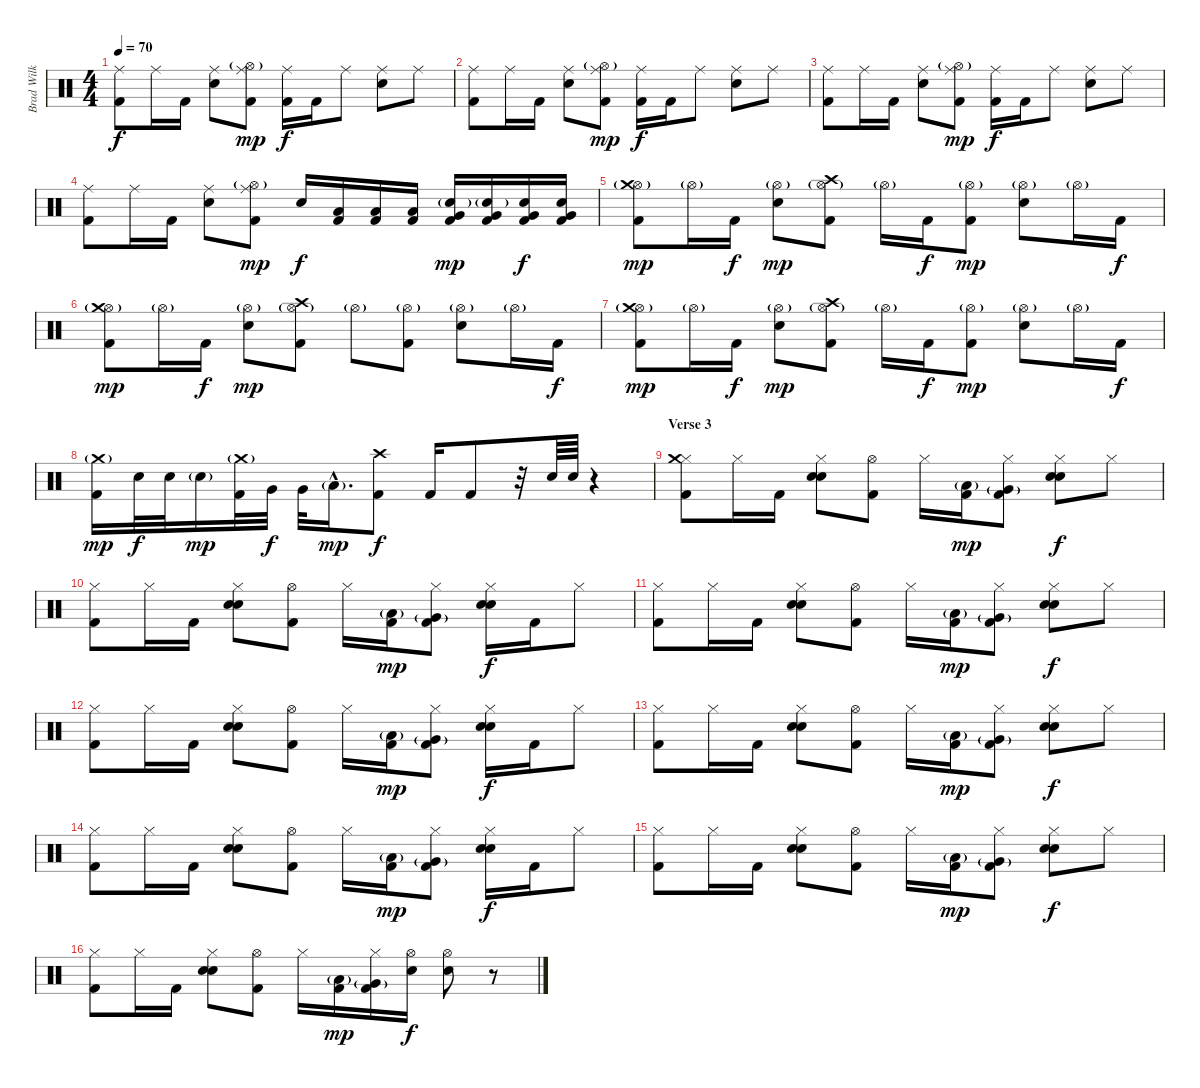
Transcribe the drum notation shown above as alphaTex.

\track ("Brad Wilk (percussion)" "Brad Wilk ") {instrument percussion}
\staff {score}
\articulation defaults
\ts (4 4)
\tempo 70
\clef neutral
\ks c
("Ride (middle)" "Kick (hit) 2").8{dy f} "Ride (middle)".16 "Kick (hit) 2".16 ("Ride (middle)" "Electric Snare (hit)").8 ("Ride (middle)" "Hi-Hat (open)"{g} "Kick (hit) 2").8{dy mp} ("Ride (middle)" "Kick (hit) 2").16{dy f} "Kick (hit) 2".16 "Ride (middle)".8 ("Ride (middle)" "Electric Snare (hit)").8 "Ride (middle)".8 |
("Ride (middle)" "Kick (hit) 2").8 "Ride (middle)".16 "Kick (hit) 2".16 ("Ride (middle)" "Electric Snare (hit)").8 ("Ride (middle)" "Hi-Hat (open)"{g} "Kick (hit) 2").8{dy mp} ("Ride (middle)" "Kick (hit) 2").16{dy f} "Kick (hit) 2".16 "Ride (middle)".8 ("Ride (middle)" "Electric Snare (hit)").8 "Ride (middle)".8 |
("Ride (middle)" "Kick (hit) 2").8 "Ride (middle)".16 "Kick (hit) 2".16 ("Ride (middle)" "Electric Snare (hit)").8 ("Ride (middle)" "Hi-Hat (open)"{g} "Kick (hit) 2").8{dy mp} ("Ride (middle)" "Kick (hit) 2").16{dy f} "Kick (hit) 2".16 "Ride (middle)".8 ("Ride (middle)" "Electric Snare (hit)").8 "Ride (middle)".8 |
("Ride (middle)" "Kick (hit) 2").8 "Ride (middle)".16 "Kick (hit) 2".16 ("Ride (middle)" "Electric Snare (hit)").8 ("Ride (middle)" "Hi-Hat (open)"{g} "Kick (hit) 2").8{dy mp} "Electric Snare (hit)".16{dy f} ("Low Floor Tom (hit)" "Kick (hit) 2").16 ("Low Floor Tom (hit)" "Kick (hit) 2").16 ("Low Floor Tom (hit)" "Kick (hit) 2").16 ("Electric Snare (hit)"{g} "Very Low Tom (hit)" "Kick (hit) 2").16{dy mp} ("Electric Snare (hit)"{g} "Very Low Tom (hit)" "Kick (hit) 2").16 ("Electric Snare (hit)" "Very Low Tom (hit)" "Kick (hit) 2").16{dy f} ("Electric Snare (hit)" "Very Low Tom (hit)" "Kick (hit) 2").16 |
("Hi-Hat (open)"{g} "Crash medium (hit)" "Kick (hit) 2").8{dy mp} "Hi-Hat (open)"{g}.16 "Kick (hit) 2".16{dy f} ("Hi-Hat (open)"{g} "Electric Snare (hit)").8{dy mp} ("Hi-Hat (open)"{g} "Crash high (hit)" "Kick (hit) 2").8 "Hi-Hat (open)"{g}.16 "Kick (hit) 2".16{dy f} ("Hi-Hat (open)"{g} "Kick (hit) 2").8{dy mp} ("Hi-Hat (open)"{g} "Electric Snare (hit)").8 "Hi-Hat (open)"{g}.16 "Kick (hit) 2".16{dy f} |
("Hi-Hat (open)"{g} "Crash medium (hit)" "Kick (hit) 2").8{dy mp} "Hi-Hat (open)"{g}.16 "Kick (hit) 2".16{dy f} ("Hi-Hat (open)"{g} "Electric Snare (hit)").8{dy mp} ("Hi-Hat (open)"{g} "Crash high (hit)" "Kick (hit) 2").8 "Hi-Hat (open)"{g}.8 ("Hi-Hat (open)"{g} "Kick (hit) 2").8 ("Hi-Hat (open)"{g} "Electric Snare (hit)").8 "Hi-Hat (open)"{g}.16 "Kick (hit) 2".16{dy f} |
("Hi-Hat (open)"{g} "Crash medium (hit)" "Kick (hit) 2").8{dy mp} "Hi-Hat (open)"{g}.16 "Kick (hit) 2".16{dy f} ("Hi-Hat (open)"{g} "Electric Snare (hit)").8{dy mp} ("Hi-Hat (open)"{g} "Crash high (hit)" "Kick (hit) 2").8 "Hi-Hat (open)"{g}.16 "Kick (hit) 2".16{dy f} ("Hi-Hat (open)"{g} "Kick (hit) 2").8{dy mp} ("Hi-Hat (open)"{g} "Electric Snare (hit)").8 "Hi-Hat (open)"{g}.16 "Kick (hit) 2".16{dy f} |
("Crash medium (hit)"{g} "Kick (hit) 2").16{dy mp} "Electric Snare (hit)".32{dy f} "Electric Snare (hit)".32 "Electric Snare (hit)"{g}.16{dy mp} ("Crash medium (hit)"{g} "Kick (hit) 2").32 "Very Low Tom (hit)".32{dy f} "Very Low Tom (hit)".32 "Low Floor Tom (hit)"{g hac}.16{d dy mp} ("Crash high (hit)" "Kick (hit) 2").8{dy f} "Kick (hit) 2".16 "Kick (hit) 2".8 r.32 "Electric Snare (hit)".64 "Electric Snare (hit)".64 r.4 |
\section ("" "Verse 3")
("Hi-Hat (closed)" "Crash medium (hit)" "Kick (hit) 2").8 "Hi-Hat (closed)".16 "Kick (hit) 2".16 ("Hi-Hat (closed)" "Electric Snare (hit)" "Electric Snare (hit)").8 ("Hi-Hat (open)" "Kick (hit) 2").8 "Hi-Hat (closed)".16 ("Low Floor Tom (hit)"{g} "Kick (hit) 2").16{dy mp} ("Hi-Hat (closed)" "Very Low Tom (hit)"{g} "Kick (hit) 2").8 ("Hi-Hat (closed)" "Electric Snare (hit)" "Electric Snare (hit)").8{dy f} "Hi-Hat (closed)".8 |
("Hi-Hat (closed)" "Kick (hit) 2").8 "Hi-Hat (closed)".16 "Kick (hit) 2".16 ("Hi-Hat (closed)" "Electric Snare (hit)" "Electric Snare (hit)").8 ("Hi-Hat (open)" "Kick (hit) 2").8 "Hi-Hat (closed)".16 ("Low Floor Tom (hit)"{g} "Kick (hit) 2").16{dy mp} ("Hi-Hat (closed)" "Very Low Tom (hit)"{g} "Kick (hit) 2").8 ("Hi-Hat (closed)" "Electric Snare (hit)" "Electric Snare (hit)").16{dy f} "Kick (hit) 2".16 "Hi-Hat (closed)".8 |
("Hi-Hat (closed)" "Kick (hit) 2").8 "Hi-Hat (closed)".16 "Kick (hit) 2".16 ("Hi-Hat (closed)" "Electric Snare (hit)" "Electric Snare (hit)").8 ("Hi-Hat (open)" "Kick (hit) 2").8 "Hi-Hat (closed)".16 ("Low Floor Tom (hit)"{g} "Kick (hit) 2").16{dy mp} ("Hi-Hat (closed)" "Very Low Tom (hit)"{g} "Kick (hit) 2").8 ("Hi-Hat (closed)" "Electric Snare (hit)" "Electric Snare (hit)").8{dy f} "Hi-Hat (closed)".8 |
("Hi-Hat (closed)" "Kick (hit) 2").8 "Hi-Hat (closed)".16 "Kick (hit) 2".16 ("Hi-Hat (closed)" "Electric Snare (hit)" "Electric Snare (hit)").8 ("Hi-Hat (open)" "Kick (hit) 2").8 "Hi-Hat (closed)".16 ("Low Floor Tom (hit)"{g} "Kick (hit) 2").16{dy mp} ("Hi-Hat (closed)" "Very Low Tom (hit)"{g} "Kick (hit) 2").8 ("Hi-Hat (closed)" "Electric Snare (hit)" "Electric Snare (hit)").16{dy f} "Kick (hit) 2".16 "Hi-Hat (closed)".8 |
("Hi-Hat (closed)" "Kick (hit) 2").8 "Hi-Hat (closed)".16 "Kick (hit) 2".16 ("Hi-Hat (closed)" "Electric Snare (hit)" "Electric Snare (hit)").8 ("Hi-Hat (open)" "Kick (hit) 2").8 "Hi-Hat (closed)".16 ("Low Floor Tom (hit)"{g} "Kick (hit) 2").16{dy mp} ("Hi-Hat (closed)" "Very Low Tom (hit)"{g} "Kick (hit) 2").8 ("Hi-Hat (closed)" "Electric Snare (hit)" "Electric Snare (hit)").8{dy f} "Hi-Hat (closed)".8 |
("Hi-Hat (closed)" "Kick (hit) 2").8 "Hi-Hat (closed)".16 "Kick (hit) 2".16 ("Hi-Hat (closed)" "Electric Snare (hit)" "Electric Snare (hit)").8 ("Hi-Hat (open)" "Kick (hit) 2").8 "Hi-Hat (closed)".16 ("Low Floor Tom (hit)"{g} "Kick (hit) 2").16{dy mp} ("Hi-Hat (closed)" "Very Low Tom (hit)"{g} "Kick (hit) 2").8 ("Hi-Hat (closed)" "Electric Snare (hit)" "Electric Snare (hit)").16{dy f} "Kick (hit) 2".16 "Hi-Hat (closed)".8 |
("Hi-Hat (closed)" "Kick (hit) 2").8 "Hi-Hat (closed)".16 "Kick (hit) 2".16 ("Hi-Hat (closed)" "Electric Snare (hit)" "Electric Snare (hit)").8 ("Hi-Hat (open)" "Kick (hit) 2").8 "Hi-Hat (closed)".16 ("Low Floor Tom (hit)"{g} "Kick (hit) 2").16{dy mp} ("Hi-Hat (closed)" "Very Low Tom (hit)"{g} "Kick (hit) 2").8 ("Hi-Hat (closed)" "Electric Snare (hit)" "Electric Snare (hit)").8{dy f} "Hi-Hat (closed)".8 |
("Hi-Hat (closed)" "Kick (hit) 2").8 "Hi-Hat (closed)".16 "Kick (hit) 2".16 ("Hi-Hat (closed)" "Electric Snare (hit)" "Electric Snare (hit)").8 ("Hi-Hat (open)" "Kick (hit) 2").8 "Hi-Hat (closed)".16 ("Low Floor Tom (hit)"{g} "Kick (hit) 2").16{dy mp} ("Hi-Hat (closed)" "Very Low Tom (hit)"{g} "Kick (hit) 2").16 ("Hi-Hat (open)" "Electric Snare (hit)").16{dy f} ("Hi-Hat (open)" "Electric Snare (hit)").8 r.8
